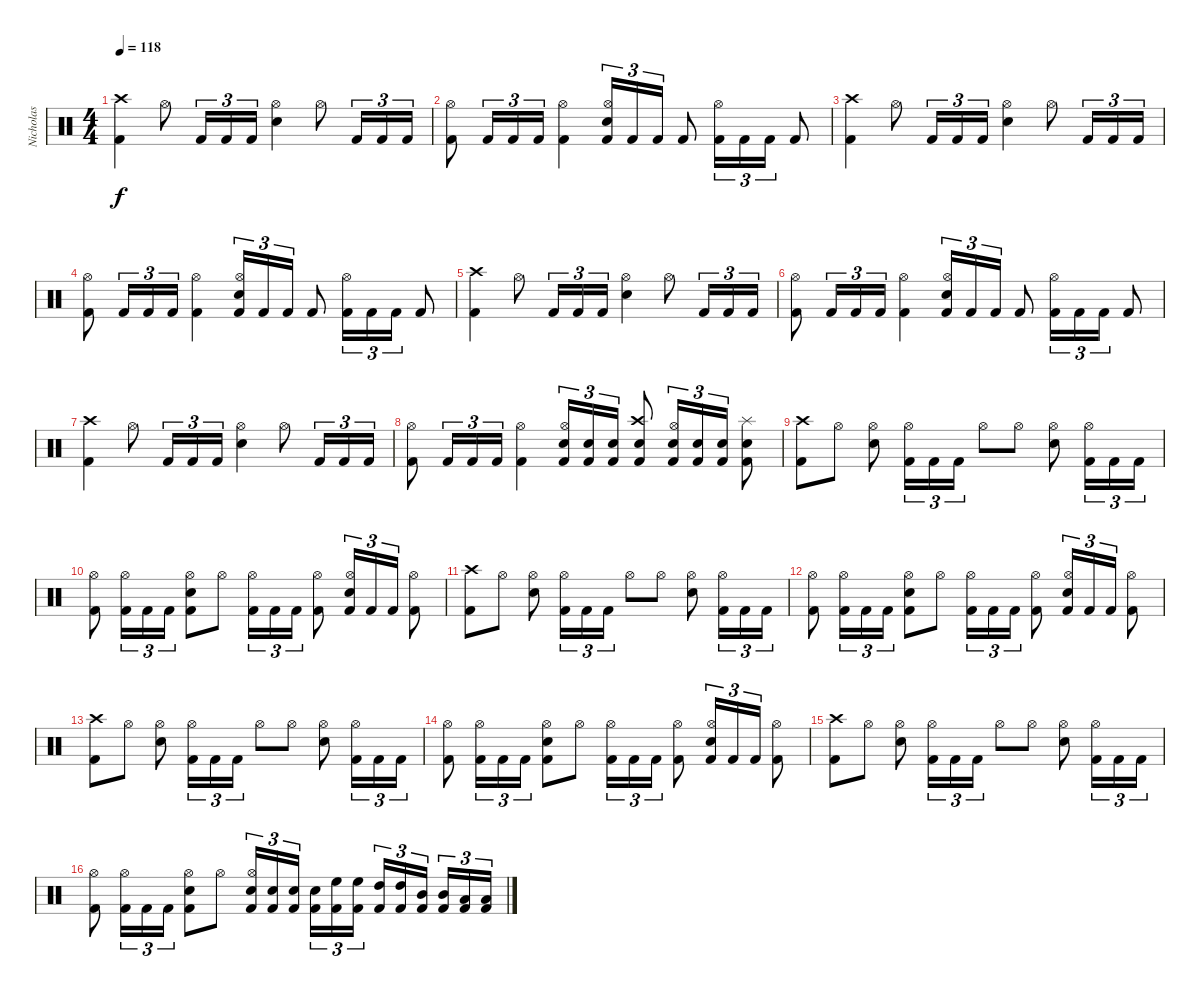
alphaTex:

\track ("Nicholas" "Nicholas") {instrument percussion}
\staff {score}
\articulation defaults
\ts (4 4)
\tempo 118
\clef neutral
\ks c
("Kick (hit) 2" "Crash high (hit)").4{dy f} "Hi-Hat (open)".8 "Kick (hit) 2".16{tu (3 2)} "Kick (hit) 2".16{tu (3 2)} "Kick (hit) 2".16{tu (3 2)} ("Snare (hit) 2" "Hi-Hat (open)").4 "Hi-Hat (open)".8 "Kick (hit) 2".16{tu (3 2)} "Kick (hit) 2".16{tu (3 2)} "Kick (hit) 2".16{tu (3 2)} |
("Kick (hit) 2" "Hi-Hat (open)").8 "Kick (hit) 2".16{tu (3 2)} "Kick (hit) 2".16{tu (3 2)} "Kick (hit) 2".16{tu (3 2)} ("Kick (hit) 2" "Hi-Hat (open)").4 ("Kick (hit) 2" "Snare (hit) 2" "Hi-Hat (open)").16{tu (3 2)} "Kick (hit) 2".16{tu (3 2)} "Kick (hit) 2".16{tu (3 2)} "Kick (hit) 2".8 ("Kick (hit) 2" "Hi-Hat (open)").16{tu (3 2)} "Kick (hit) 2".16{tu (3 2)} "Kick (hit) 2".16{tu (3 2)} "Kick (hit) 2".8 |
("Kick (hit) 2" "Crash high (hit)").4 "Hi-Hat (open)".8 "Kick (hit) 2".16{tu (3 2)} "Kick (hit) 2".16{tu (3 2)} "Kick (hit) 2".16{tu (3 2)} ("Snare (hit) 2" "Hi-Hat (open)").4 "Hi-Hat (open)".8 "Kick (hit) 2".16{tu (3 2)} "Kick (hit) 2".16{tu (3 2)} "Kick (hit) 2".16{tu (3 2)} |
("Kick (hit) 2" "Hi-Hat (open)").8 "Kick (hit) 2".16{tu (3 2)} "Kick (hit) 2".16{tu (3 2)} "Kick (hit) 2".16{tu (3 2)} ("Kick (hit) 2" "Hi-Hat (open)").4 ("Kick (hit) 2" "Snare (hit) 2" "Hi-Hat (open)").16{tu (3 2)} "Kick (hit) 2".16{tu (3 2)} "Kick (hit) 2".16{tu (3 2)} "Kick (hit) 2".8 ("Kick (hit) 2" "Hi-Hat (open)").16{tu (3 2)} "Kick (hit) 2".16{tu (3 2)} "Kick (hit) 2".16{tu (3 2)} "Kick (hit) 2".8 |
("Kick (hit) 2" "Crash high (hit)").4 "Hi-Hat (open)".8 "Kick (hit) 2".16{tu (3 2)} "Kick (hit) 2".16{tu (3 2)} "Kick (hit) 2".16{tu (3 2)} ("Snare (hit) 2" "Hi-Hat (open)").4 "Hi-Hat (open)".8 "Kick (hit) 2".16{tu (3 2)} "Kick (hit) 2".16{tu (3 2)} "Kick (hit) 2".16{tu (3 2)} |
("Kick (hit) 2" "Hi-Hat (open)").8 "Kick (hit) 2".16{tu (3 2)} "Kick (hit) 2".16{tu (3 2)} "Kick (hit) 2".16{tu (3 2)} ("Kick (hit) 2" "Hi-Hat (open)").4 ("Kick (hit) 2" "Snare (hit) 2" "Hi-Hat (open)").16{tu (3 2)} "Kick (hit) 2".16{tu (3 2)} "Kick (hit) 2".16{tu (3 2)} "Kick (hit) 2".8 ("Kick (hit) 2" "Hi-Hat (open)").16{tu (3 2)} "Kick (hit) 2".16{tu (3 2)} "Kick (hit) 2".16{tu (3 2)} "Kick (hit) 2".8 |
("Kick (hit) 2" "Crash high (hit)").4 "Hi-Hat (open)".8 "Kick (hit) 2".16{tu (3 2)} "Kick (hit) 2".16{tu (3 2)} "Kick (hit) 2".16{tu (3 2)} ("Snare (hit) 2" "Hi-Hat (open)").4 "Hi-Hat (open)".8 "Kick (hit) 2".16{tu (3 2)} "Kick (hit) 2".16{tu (3 2)} "Kick (hit) 2".16{tu (3 2)} |
("Kick (hit) 2" "Hi-Hat (open)").8 "Kick (hit) 2".16{tu (3 2)} "Kick (hit) 2".16{tu (3 2)} "Kick (hit) 2".16{tu (3 2)} ("Kick (hit) 2" "Hi-Hat (open)").4 ("Kick (hit) 2" "Snare (hit) 2" "Hi-Hat (open)").16{tu (3 2)} ("Kick (hit) 2" "Snare (hit) 2").16{tu (3 2)} ("Kick (hit) 2" "Snare (hit) 2").16{tu (3 2)} ("Kick (hit) 2" "Snare (hit) 2" "Crash high (hit)").8 ("Kick (hit) 2" "Snare (hit) 2" "Hi-Hat (open)").16{tu (3 2)} ("Kick (hit) 2" "Snare (hit) 2").16{tu (3 2)} ("Kick (hit) 2" "Snare (hit) 2").16{tu (3 2)} ("Kick (hit) 2" "Snare (hit) 2" "Splash (hit)").8 |
("Kick (hit) 2" "Crash high (hit)").8 "Hi-Hat (open)".8 ("Snare (hit) 2" "Hi-Hat (open)").8 ("Kick (hit) 2" "Hi-Hat (open)").16{tu (3 2)} "Kick (hit) 2".16{tu (3 2)} "Kick (hit) 2".16{tu (3 2)} "Hi-Hat (open)".8 "Hi-Hat (open)".8 ("Snare (hit) 2" "Hi-Hat (open)").8 ("Kick (hit) 2" "Hi-Hat (open)").16{tu (3 2)} "Kick (hit) 2".16{tu (3 2)} "Kick (hit) 2".16{tu (3 2)} |
("Kick (hit) 2" "Hi-Hat (open)").8 ("Kick (hit) 2" "Hi-Hat (open)").16{tu (3 2)} "Kick (hit) 2".16{tu (3 2)} "Kick (hit) 2".16{tu (3 2)} ("Kick (hit) 2" "Snare (hit) 2" "Hi-Hat (open)").8 "Hi-Hat (open)".8 ("Kick (hit) 2" "Hi-Hat (open)").16{tu (3 2)} "Kick (hit) 2".16{tu (3 2)} "Kick (hit) 2".16{tu (3 2)} ("Kick (hit) 2" "Hi-Hat (open)").8 ("Kick (hit) 2" "Snare (hit) 2" "Hi-Hat (open)").16{tu (3 2)} "Kick (hit) 2".16{tu (3 2)} "Kick (hit) 2".16{tu (3 2)} ("Kick (hit) 2" "Hi-Hat (open)").8 |
("Kick (hit) 2" "Crash high (hit)").8 "Hi-Hat (open)".8 ("Snare (hit) 2" "Hi-Hat (open)").8 ("Kick (hit) 2" "Hi-Hat (open)").16{tu (3 2)} "Kick (hit) 2".16{tu (3 2)} "Kick (hit) 2".16{tu (3 2)} "Hi-Hat (open)".8 "Hi-Hat (open)".8 ("Snare (hit) 2" "Hi-Hat (open)").8 ("Kick (hit) 2" "Hi-Hat (open)").16{tu (3 2)} "Kick (hit) 2".16{tu (3 2)} "Kick (hit) 2".16{tu (3 2)} |
("Kick (hit) 2" "Hi-Hat (open)").8 ("Kick (hit) 2" "Hi-Hat (open)").16{tu (3 2)} "Kick (hit) 2".16{tu (3 2)} "Kick (hit) 2".16{tu (3 2)} ("Kick (hit) 2" "Snare (hit) 2" "Hi-Hat (open)").8 "Hi-Hat (open)".8 ("Kick (hit) 2" "Hi-Hat (open)").16{tu (3 2)} "Kick (hit) 2".16{tu (3 2)} "Kick (hit) 2".16{tu (3 2)} ("Kick (hit) 2" "Hi-Hat (open)").8 ("Kick (hit) 2" "Snare (hit) 2" "Hi-Hat (open)").16{tu (3 2)} "Kick (hit) 2".16{tu (3 2)} "Kick (hit) 2".16{tu (3 2)} ("Kick (hit) 2" "Hi-Hat (open)").8 |
("Kick (hit) 2" "Crash high (hit)").8 "Hi-Hat (open)".8 ("Snare (hit) 2" "Hi-Hat (open)").8 ("Kick (hit) 2" "Hi-Hat (open)").16{tu (3 2)} "Kick (hit) 2".16{tu (3 2)} "Kick (hit) 2".16{tu (3 2)} "Hi-Hat (open)".8 "Hi-Hat (open)".8 ("Snare (hit) 2" "Hi-Hat (open)").8 ("Kick (hit) 2" "Hi-Hat (open)").16{tu (3 2)} "Kick (hit) 2".16{tu (3 2)} "Kick (hit) 2".16{tu (3 2)} |
("Kick (hit) 2" "Hi-Hat (open)").8 ("Kick (hit) 2" "Hi-Hat (open)").16{tu (3 2)} "Kick (hit) 2".16{tu (3 2)} "Kick (hit) 2".16{tu (3 2)} ("Kick (hit) 2" "Snare (hit) 2" "Hi-Hat (open)").8 "Hi-Hat (open)".8 ("Kick (hit) 2" "Hi-Hat (open)").16{tu (3 2)} "Kick (hit) 2".16{tu (3 2)} "Kick (hit) 2".16{tu (3 2)} ("Kick (hit) 2" "Hi-Hat (open)").8 ("Kick (hit) 2" "Snare (hit) 2" "Hi-Hat (open)").16{tu (3 2)} "Kick (hit) 2".16{tu (3 2)} "Kick (hit) 2".16{tu (3 2)} ("Kick (hit) 2" "Hi-Hat (open)").8 |
("Kick (hit) 2" "Crash high (hit)").8 "Hi-Hat (open)".8 ("Snare (hit) 2" "Hi-Hat (open)").8 ("Kick (hit) 2" "Hi-Hat (open)").16{tu (3 2)} "Kick (hit) 2".16{tu (3 2)} "Kick (hit) 2".16{tu (3 2)} "Hi-Hat (open)".8 "Hi-Hat (open)".8 ("Snare (hit) 2" "Hi-Hat (open)").8 ("Kick (hit) 2" "Hi-Hat (open)").16{tu (3 2)} "Kick (hit) 2".16{tu (3 2)} "Kick (hit) 2".16{tu (3 2)} |
("Kick (hit) 2" "Hi-Hat (open)").8 ("Kick (hit) 2" "Hi-Hat (open)").16{tu (3 2)} "Kick (hit) 2".16{tu (3 2)} "Kick (hit) 2".16{tu (3 2)} ("Kick (hit) 2" "Snare (hit) 2" "Hi-Hat (open)").8 "Hi-Hat (open)".8 ("Kick (hit) 2" "Snare (hit) 2" "Hi-Hat (open)").16{tu (3 2)} ("Kick (hit) 2" "Snare (hit) 2").16{tu (3 2)} ("Kick (hit) 2" "Snare (hit) 2").16{tu (3 2)} ("Kick (hit) 2" "Snare (hit) 2").16{tu (3 2)} ("Kick (hit) 2" "High Floor Tom (hit)").16{tu (3 2)} ("Kick (hit) 2" "High Floor Tom (hit)").16{tu (3 2)} ("Kick (hit) 2" "High Tom (hit)").16{tu (3 2)} ("Kick (hit) 2" "High Tom (hit)").16{tu (3 2)} ("Kick (hit) 2" "Mid Tom (hit)").16{tu (3 2)} ("Kick (hit) 2" "Mid Tom (hit)").16{tu (3 2)} ("Kick (hit) 2" "Low Tom (hit)").16{tu (3 2)} ("Kick (hit) 2" "Low Tom (hit)").16{tu (3 2)}
